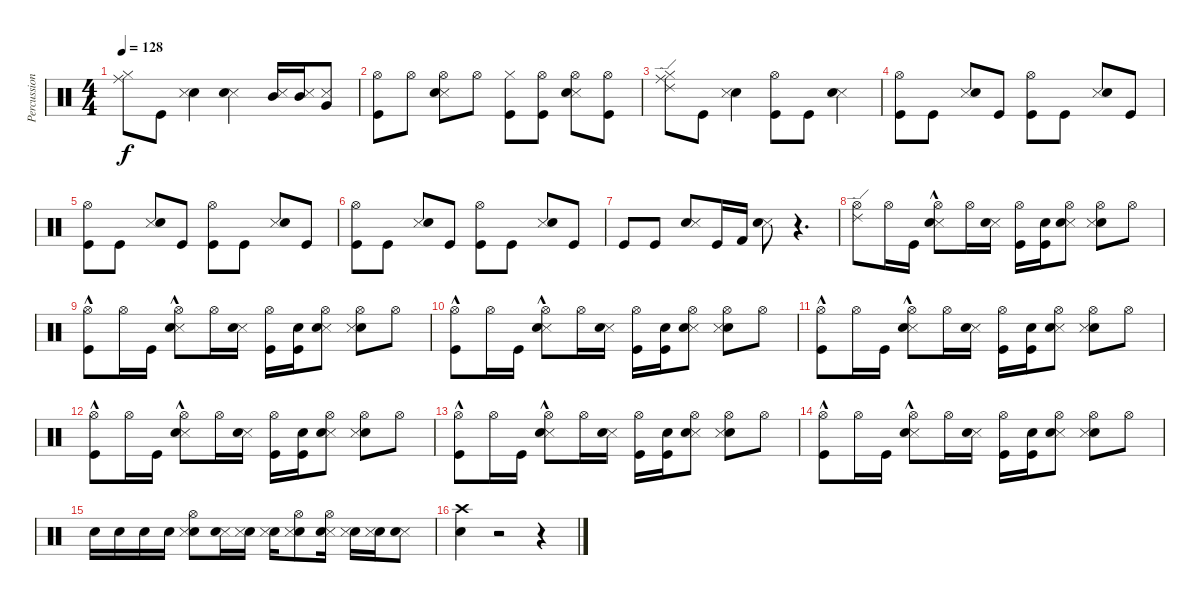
\track ("Percussion" "Percussion") {instrument percussion}
\staff {score}
\articulation defaults
\ts (4 4)
\tempo 128
\clef neutral
\ks c
("Ride (middle)" "Hi-Hat (closed)").8{dy f} "Kick (hit)".8 ("Electric Snare (hit)" "Snare (side stick) 3").4 ("Snare (side stick) 3" "Electric Snare (hit)").4 ("Snare (side stick) 3" "Mid Tom (hit)").16 ("Snare (side stick) 3" "Mid Tom (hit)").16 ("Snare (side stick) 3" "Very Low Tom (hit)").8 |
("Kick (hit)" "Hi-Hat (open)").8 "Hi-Hat (open)".8 ("Snare (side stick) 3" "Electric Snare (hit)" "Hi-Hat (open)").8 "Hi-Hat (open)".8 ("Hi-Hat (closed)" "Kick (hit)").8 ("Kick (hit)" "Hi-Hat (open)").8 ("Snare (side stick) 3" "Electric Snare (hit)" "Hi-Hat (open)").8 ("Kick (hit)" "Hi-Hat (open)").8 |
("Ride (edge) 2" "Ride (middle)" "Hi-Hat (closed)").8 "Kick (hit)".8 ("Electric Snare (hit)" "Snare (side stick) 3").4 ("Hi-Hat (open)" "Kick (hit)").8 "Kick (hit)".8 ("Snare (side stick) 3" "Electric Snare (hit)").4 |
("Hi-Hat (open)" "Kick (hit)").8 "Kick (hit)".8 ("Snare (side stick) 3" "Electric Snare (hit)").8 "Kick (hit)".8 ("Hi-Hat (open)" "Kick (hit)").8 "Kick (hit)".8 ("Snare (side stick) 3" "Electric Snare (hit)").8 "Kick (hit)".8 |
("Hi-Hat (open)" "Kick (hit)").8 "Kick (hit)".8 ("Snare (side stick) 3" "Electric Snare (hit)").8 "Kick (hit)".8 ("Hi-Hat (open)" "Kick (hit)").8 "Kick (hit)".8 ("Snare (side stick) 3" "Electric Snare (hit)").8 "Kick (hit)".8 |
("Hi-Hat (open)" "Kick (hit)").8 "Kick (hit)".8 ("Snare (side stick) 3" "Electric Snare (hit)").8 "Kick (hit)".8 ("Hi-Hat (open)" "Kick (hit)").8 "Kick (hit)".8 ("Snare (side stick) 3" "Electric Snare (hit)").8 "Kick (hit)".8 |
"Kick (hit)".8 "Kick (hit)".8 ("Electric Snare (hit)" "Snare (side stick) 3").8 "Kick (hit)".16 "Kick (hit) 2".16 ("Snare (side stick) 3" "Electric Snare (hit)").8 r.4{d} |
("Hi-Hat (open)" "Ride (edge) 2").8 "Hi-Hat (open)".16 "Kick (hit)".16 ("Snare (side stick) 3"{hac} "Electric Snare (hit)"{hac} "Hi-Hat (open)").8 "Hi-Hat (open)".16 ("Snare (side stick) 3" "Electric Snare (hit)").16 ("Kick (hit)" "Hi-Hat (open)").16 ("Kick (hit)" "Electric Snare (hit)").16 ("Snare (side stick) 3" "Electric Snare (hit)" "Hi-Hat (open)").8 ("Electric Snare (hit)" "Snare (side stick) 3" "Hi-Hat (open)").8 "Hi-Hat (open)".8 |
("Hi-Hat (open)" "Kick (hit)"{hac}).8 "Hi-Hat (open)".16 "Kick (hit)".16 ("Snare (side stick) 3"{hac} "Electric Snare (hit)"{hac} "Hi-Hat (open)").8 "Hi-Hat (open)".16 ("Snare (side stick) 3" "Electric Snare (hit)").16 ("Kick (hit)" "Hi-Hat (open)").16 ("Kick (hit)" "Electric Snare (hit)").16 ("Snare (side stick) 3" "Electric Snare (hit)" "Hi-Hat (open)").8 ("Electric Snare (hit)" "Snare (side stick) 3" "Hi-Hat (open)").8 "Hi-Hat (open)".8 |
("Hi-Hat (open)" "Kick (hit)"{hac}).8 "Hi-Hat (open)".16 "Kick (hit)".16 ("Snare (side stick) 3"{hac} "Electric Snare (hit)"{hac} "Hi-Hat (open)").8 "Hi-Hat (open)".16 ("Snare (side stick) 3" "Electric Snare (hit)").16 ("Kick (hit)" "Hi-Hat (open)").16 ("Kick (hit)" "Electric Snare (hit)").16 ("Snare (side stick) 3" "Electric Snare (hit)" "Hi-Hat (open)").8 ("Electric Snare (hit)" "Snare (side stick) 3" "Hi-Hat (open)").8 "Hi-Hat (open)".8 |
("Hi-Hat (open)" "Kick (hit)"{hac}).8 "Hi-Hat (open)".16 "Kick (hit)".16 ("Snare (side stick) 3"{hac} "Electric Snare (hit)"{hac} "Hi-Hat (open)").8 "Hi-Hat (open)".16 ("Snare (side stick) 3" "Electric Snare (hit)").16 ("Kick (hit)" "Hi-Hat (open)").16 ("Kick (hit)" "Electric Snare (hit)").16 ("Snare (side stick) 3" "Electric Snare (hit)" "Hi-Hat (open)").8 ("Electric Snare (hit)" "Snare (side stick) 3" "Hi-Hat (open)").8 "Hi-Hat (open)".8 |
("Hi-Hat (open)" "Kick (hit)"{hac}).8 "Hi-Hat (open)".16 "Kick (hit)".16 ("Snare (side stick) 3"{hac} "Electric Snare (hit)"{hac} "Hi-Hat (open)").8 "Hi-Hat (open)".16 ("Snare (side stick) 3" "Electric Snare (hit)").16 ("Kick (hit)" "Hi-Hat (open)").16 ("Kick (hit)" "Electric Snare (hit)").16 ("Snare (side stick) 3" "Electric Snare (hit)" "Hi-Hat (open)").8 ("Electric Snare (hit)" "Snare (side stick) 3" "Hi-Hat (open)").8 "Hi-Hat (open)".8 |
("Hi-Hat (open)" "Kick (hit)"{hac}).8 "Hi-Hat (open)".16 "Kick (hit)".16 ("Snare (side stick) 3"{hac} "Electric Snare (hit)"{hac} "Hi-Hat (open)").8 "Hi-Hat (open)".16 ("Snare (side stick) 3" "Electric Snare (hit)").16 ("Kick (hit)" "Hi-Hat (open)").16 ("Kick (hit)" "Electric Snare (hit)").16 ("Snare (side stick) 3" "Electric Snare (hit)" "Hi-Hat (open)").8 ("Electric Snare (hit)" "Snare (side stick) 3" "Hi-Hat (open)").8 "Hi-Hat (open)".8 |
("Hi-Hat (open)" "Kick (hit)"{hac}).8 "Hi-Hat (open)".16 "Kick (hit)".16 ("Snare (side stick) 3"{hac} "Electric Snare (hit)"{hac} "Hi-Hat (open)").8 "Hi-Hat (open)".16 ("Snare (side stick) 3" "Electric Snare (hit)").16 ("Kick (hit)" "Hi-Hat (open)").16 ("Kick (hit)" "Electric Snare (hit)").16 ("Snare (side stick) 3" "Electric Snare (hit)" "Hi-Hat (open)").8 ("Electric Snare (hit)" "Snare (side stick) 3" "Hi-Hat (open)").8 "Hi-Hat (open)".8 |
"Electric Snare (hit)".16 "Electric Snare (hit)".16 "Electric Snare (hit)".16 "Electric Snare (hit)".16 ("Electric Snare (hit)" "Snare (side stick) 3" "Hi-Hat (open)").8 ("Snare (side stick) 3" "Electric Snare (hit)").16 ("Electric Snare (hit)" "Snare (side stick) 3").16 ("Electric Snare (hit)" "Snare (side stick) 3").16 ("Electric Snare (hit)" "Snare (side stick) 3" "Hi-Hat (open)").8 ("Snare (side stick) 3" "Electric Snare (hit)" "Hi-Hat (open)").16 ("Electric Snare (hit)" "Snare (side stick) 3").16 ("Electric Snare (hit)" "Snare (side stick) 3").16 ("Snare (side stick) 3" "Electric Snare (hit)").8 |
("Electric Snare (hit)" "Crash high (hit)").4 r.2 r.4
